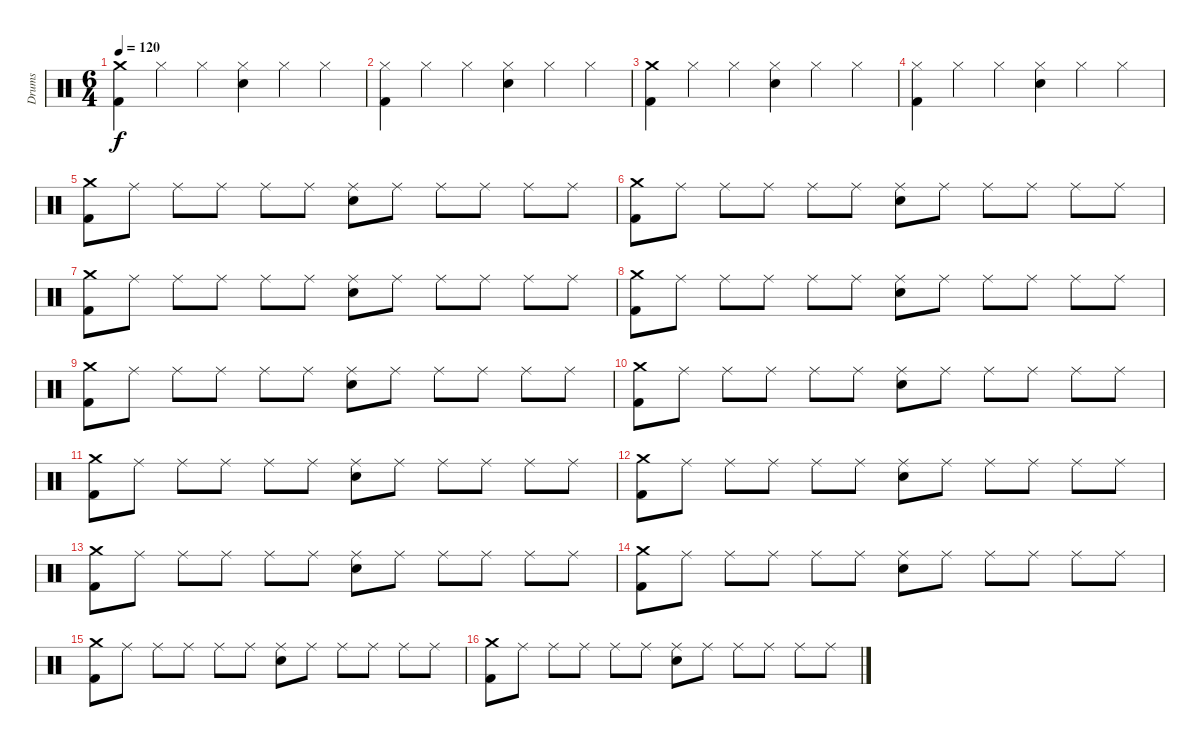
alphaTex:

\track ("Drums" "Drums") {instrument percussion}
\staff {score}
\articulation defaults
\ts (6 4)
\tempo 120
\clef neutral
\ks c
("Crash medium (hit)" "Kick (hit) 2").4{dy f} "Hi-Hat (closed)".4 "Hi-Hat (closed)".4 ("Hi-Hat (closed)" "Electric Snare (hit)").4 "Hi-Hat (closed)".4 "Hi-Hat (closed)".4 |
("Hi-Hat (closed)" "Kick (hit) 2").4 "Hi-Hat (closed)".4 "Hi-Hat (closed)".4 ("Hi-Hat (closed)" "Electric Snare (hit)").4 "Hi-Hat (closed)".4 "Hi-Hat (closed)".4 |
("Crash medium (hit)" "Kick (hit) 2").4 "Hi-Hat (closed)".4 "Hi-Hat (closed)".4 ("Hi-Hat (closed)" "Electric Snare (hit)").4 "Hi-Hat (closed)".4 "Hi-Hat (closed)".4 |
("Hi-Hat (closed)" "Kick (hit) 2").4 "Hi-Hat (closed)".4 "Hi-Hat (closed)".4 ("Hi-Hat (closed)" "Electric Snare (hit)").4 "Hi-Hat (closed)".4 "Hi-Hat (closed)".4 |
("Crash medium (hit)" "Kick (hit) 2").8 "Ride (middle)".8 "Ride (middle)".8 "Ride (middle)".8 "Ride (middle)".8 "Ride (middle)".8 ("Ride (middle)" "Electric Snare (hit)").8 "Ride (middle)".8 "Ride (middle)".8 "Ride (middle)".8 "Ride (middle)".8 "Ride (middle)".8 |
("Crash medium (hit)" "Kick (hit) 2").8 "Ride (middle)".8 "Ride (middle)".8 "Ride (middle)".8 "Ride (middle)".8 "Ride (middle)".8 ("Ride (middle)" "Electric Snare (hit)").8 "Ride (middle)".8 "Ride (middle)".8 "Ride (middle)".8 "Ride (middle)".8 "Ride (middle)".8 |
("Crash medium (hit)" "Kick (hit) 2").8 "Ride (middle)".8 "Ride (middle)".8 "Ride (middle)".8 "Ride (middle)".8 "Ride (middle)".8 ("Ride (middle)" "Electric Snare (hit)").8 "Ride (middle)".8 "Ride (middle)".8 "Ride (middle)".8 "Ride (middle)".8 "Ride (middle)".8 |
("Crash medium (hit)" "Kick (hit) 2").8 "Ride (middle)".8 "Ride (middle)".8 "Ride (middle)".8 "Ride (middle)".8 "Ride (middle)".8 ("Ride (middle)" "Electric Snare (hit)").8 "Ride (middle)".8 "Ride (middle)".8 "Ride (middle)".8 "Ride (middle)".8 "Ride (middle)".8 |
("Crash medium (hit)" "Kick (hit) 2").8 "Ride (middle)".8 "Ride (middle)".8 "Ride (middle)".8 "Ride (middle)".8 "Ride (middle)".8 ("Ride (middle)" "Electric Snare (hit)").8 "Ride (middle)".8 "Ride (middle)".8 "Ride (middle)".8 "Ride (middle)".8 "Ride (middle)".8 |
("Crash medium (hit)" "Kick (hit) 2").8 "Ride (middle)".8 "Ride (middle)".8 "Ride (middle)".8 "Ride (middle)".8 "Ride (middle)".8 ("Ride (middle)" "Electric Snare (hit)").8 "Ride (middle)".8 "Ride (middle)".8 "Ride (middle)".8 "Ride (middle)".8 "Ride (middle)".8 |
("Crash medium (hit)" "Kick (hit) 2").8 "Ride (middle)".8 "Ride (middle)".8 "Ride (middle)".8 "Ride (middle)".8 "Ride (middle)".8 ("Ride (middle)" "Electric Snare (hit)").8 "Ride (middle)".8 "Ride (middle)".8 "Ride (middle)".8 "Ride (middle)".8 "Ride (middle)".8 |
("Crash medium (hit)" "Kick (hit) 2").8 "Ride (middle)".8 "Ride (middle)".8 "Ride (middle)".8 "Ride (middle)".8 "Ride (middle)".8 ("Ride (middle)" "Electric Snare (hit)").8 "Ride (middle)".8 "Ride (middle)".8 "Ride (middle)".8 "Ride (middle)".8 "Ride (middle)".8 |
("Crash medium (hit)" "Kick (hit) 2").8 "Ride (middle)".8 "Ride (middle)".8 "Ride (middle)".8 "Ride (middle)".8 "Ride (middle)".8 ("Ride (middle)" "Electric Snare (hit)").8 "Ride (middle)".8 "Ride (middle)".8 "Ride (middle)".8 "Ride (middle)".8 "Ride (middle)".8 |
("Crash medium (hit)" "Kick (hit) 2").8 "Ride (middle)".8 "Ride (middle)".8 "Ride (middle)".8 "Ride (middle)".8 "Ride (middle)".8 ("Ride (middle)" "Electric Snare (hit)").8 "Ride (middle)".8 "Ride (middle)".8 "Ride (middle)".8 "Ride (middle)".8 "Ride (middle)".8 |
("Crash medium (hit)" "Kick (hit) 2").8 "Ride (middle)".8 "Ride (middle)".8 "Ride (middle)".8 "Ride (middle)".8 "Ride (middle)".8 ("Ride (middle)" "Electric Snare (hit)").8 "Ride (middle)".8 "Ride (middle)".8 "Ride (middle)".8 "Ride (middle)".8 "Ride (middle)".8 |
("Crash medium (hit)" "Kick (hit) 2").8 "Ride (middle)".8 "Ride (middle)".8 "Ride (middle)".8 "Ride (middle)".8 "Ride (middle)".8 ("Ride (middle)" "Electric Snare (hit)").8 "Ride (middle)".8 "Ride (middle)".8 "Ride (middle)".8 "Ride (middle)".8 "Ride (middle)".8
